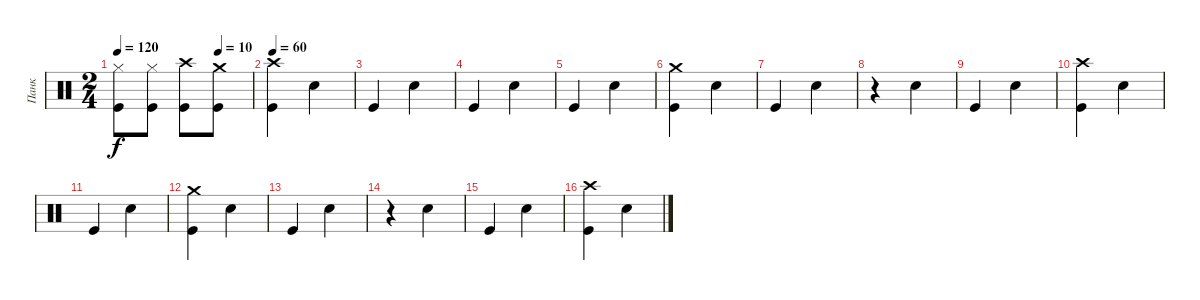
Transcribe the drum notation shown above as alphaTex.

\track ("Панк" "Панк") {instrument percussion}
\staff {score}
\articulation defaults
\ts (2 4)
\tempo 120
\tempo (10 0.75)
\clef neutral
\ks c
("Hi-Hat (closed)" "Kick (hit)").8{dy f} ("Hi-Hat (closed)" "Kick (hit)").8 ("Crash high (hit)" "Kick (hit)").8 ("Crash medium (hit)" "Kick (hit)").8 |
\tempo 60
("Crash high (hit)" "Kick (hit)").4 "Electric Snare (hit)".4 |
"Kick (hit)".4 "Electric Snare (hit)".4 |
"Kick (hit)".4 "Electric Snare (hit)".4 |
"Kick (hit)".4 "Electric Snare (hit)".4 |
("Crash medium (hit)" "Kick (hit)").4 "Electric Snare (hit)".4 |
"Kick (hit)".4 "Electric Snare (hit)".4 |
r.4 "Electric Snare (hit)".4 |
"Kick (hit)".4 "Electric Snare (hit)".4 |
("Crash high (hit)" "Kick (hit)").4 "Electric Snare (hit)".4 |
"Kick (hit)".4 "Electric Snare (hit)".4 |
("Crash medium (hit)" "Kick (hit)").4 "Electric Snare (hit)".4 |
"Kick (hit)".4 "Electric Snare (hit)".4 |
r.4 "Electric Snare (hit)".4 |
"Kick (hit)".4 "Electric Snare (hit)".4 |
("Crash high (hit)" "Kick (hit)").4 "Electric Snare (hit)".4
